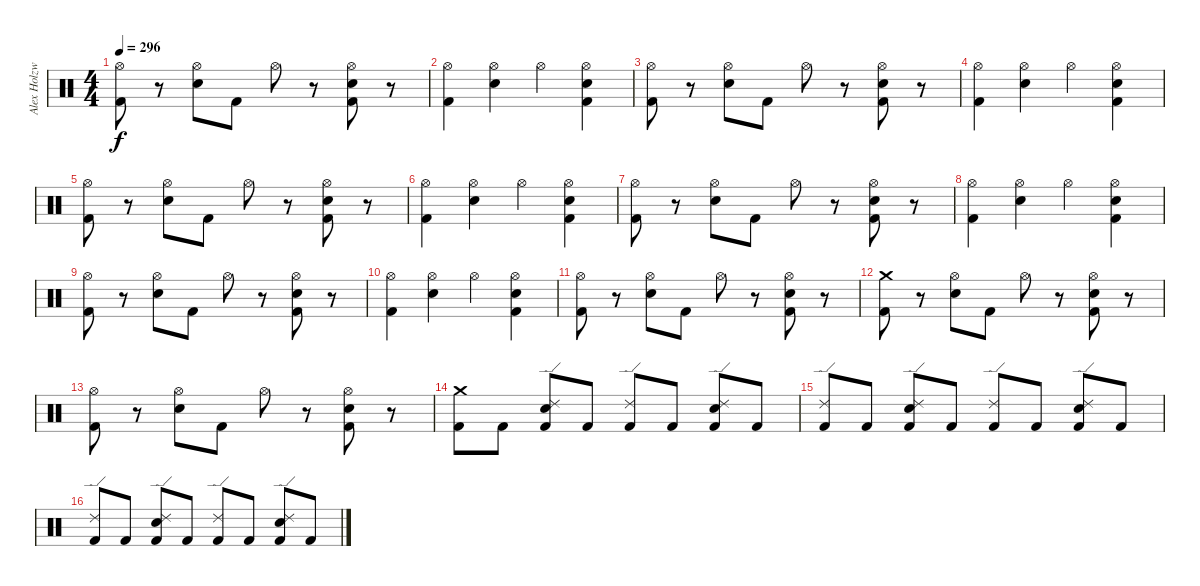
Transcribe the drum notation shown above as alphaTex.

\track ("Alex Holzwarth" "Alex Holzw") {instrument percussion}
\staff {score}
\articulation defaults
\ts (4 4)
\tempo 296
\clef neutral
\ks c
("Hi-Hat (open)" "Kick (hit) 2").8{dy f} r.8 ("Hi-Hat (open)" "Snare (hit) 2").8 "Kick (hit) 2".8 "Hi-Hat (open)".8 r.8 ("Hi-Hat (open)" "Snare (hit) 2" "Kick (hit) 2").8 r.8 |
("Hi-Hat (open)" "Kick (hit) 2").4 ("Hi-Hat (open)" "Snare (hit) 2").4 "Hi-Hat (open)".4 ("Hi-Hat (open)" "Snare (hit) 2" "Kick (hit) 2").4 |
("Hi-Hat (open)" "Kick (hit) 2").8 r.8 ("Hi-Hat (open)" "Snare (hit) 2").8 "Kick (hit) 2".8 "Hi-Hat (open)".8 r.8 ("Hi-Hat (open)" "Snare (hit) 2" "Kick (hit) 2").8 r.8 |
("Hi-Hat (open)" "Kick (hit) 2").4 ("Hi-Hat (open)" "Snare (hit) 2").4 "Hi-Hat (open)".4 ("Hi-Hat (open)" "Snare (hit) 2" "Kick (hit) 2").4 |
("Hi-Hat (open)" "Kick (hit) 2").8 r.8 ("Hi-Hat (open)" "Snare (hit) 2").8 "Kick (hit) 2".8 "Hi-Hat (open)".8 r.8 ("Hi-Hat (open)" "Snare (hit) 2" "Kick (hit) 2").8 r.8 |
("Hi-Hat (open)" "Kick (hit) 2").4 ("Hi-Hat (open)" "Snare (hit) 2").4 "Hi-Hat (open)".4 ("Hi-Hat (open)" "Snare (hit) 2" "Kick (hit) 2").4 |
("Hi-Hat (open)" "Kick (hit) 2").8 r.8 ("Hi-Hat (open)" "Snare (hit) 2").8 "Kick (hit) 2".8 "Hi-Hat (open)".8 r.8 ("Hi-Hat (open)" "Snare (hit) 2" "Kick (hit) 2").8 r.8 |
("Hi-Hat (open)" "Kick (hit) 2").4 ("Hi-Hat (open)" "Snare (hit) 2").4 "Hi-Hat (open)".4 ("Hi-Hat (open)" "Snare (hit) 2" "Kick (hit) 2").4 |
("Hi-Hat (open)" "Kick (hit) 2").8 r.8 ("Hi-Hat (open)" "Snare (hit) 2").8 "Kick (hit) 2".8 "Hi-Hat (open)".8 r.8 ("Hi-Hat (open)" "Snare (hit) 2" "Kick (hit) 2").8 r.8 |
("Hi-Hat (open)" "Kick (hit) 2").4 ("Hi-Hat (open)" "Snare (hit) 2").4 "Hi-Hat (open)".4 ("Hi-Hat (open)" "Snare (hit) 2" "Kick (hit) 2").4 |
("Hi-Hat (open)" "Kick (hit) 2").8 r.8 ("Hi-Hat (open)" "Snare (hit) 2").8 "Kick (hit) 2".8 "Hi-Hat (open)".8 r.8 ("Hi-Hat (open)" "Snare (hit) 2" "Kick (hit) 2").8 r.8 |
("Crash medium (hit)" "Kick (hit) 2").8 r.8 ("Hi-Hat (open)" "Snare (hit) 2").8 "Kick (hit) 2".8 "Hi-Hat (open)".8 r.8 ("Hi-Hat (open)" "Snare (hit) 2" "Kick (hit) 2").8 r.8 |
("Hi-Hat (open)" "Kick (hit) 2").8 r.8 ("Hi-Hat (open)" "Snare (hit) 2").8 "Kick (hit) 2".8 "Hi-Hat (open)".8 r.8 ("Hi-Hat (open)" "Snare (hit) 2" "Kick (hit) 2").8 r.8 |
("Crash medium (hit)" "Kick (hit) 2").8 "Kick (hit) 2".8 ("Ride (edge) 2" "Snare (hit) 2" "Kick (hit) 2").8 "Kick (hit) 2".8 ("Ride (edge) 2" "Kick (hit) 2").8 "Kick (hit) 2".8 ("Ride (edge) 2" "Snare (hit) 2" "Kick (hit) 2").8 "Kick (hit) 2".8 |
("Ride (edge) 2" "Kick (hit) 2").8 "Kick (hit) 2".8 ("Ride (edge) 2" "Snare (hit) 2" "Kick (hit) 2").8 "Kick (hit) 2".8 ("Ride (edge) 2" "Kick (hit) 2").8 "Kick (hit) 2".8 ("Ride (edge) 2" "Snare (hit) 2" "Kick (hit) 2").8 "Kick (hit) 2".8 |
("Ride (edge) 2" "Kick (hit) 2").8 "Kick (hit) 2".8 ("Ride (edge) 2" "Snare (hit) 2" "Kick (hit) 2").8 "Kick (hit) 2".8 ("Ride (edge) 2" "Kick (hit) 2").8 "Kick (hit) 2".8 ("Ride (edge) 2" "Snare (hit) 2" "Kick (hit) 2").8 "Kick (hit) 2".8
